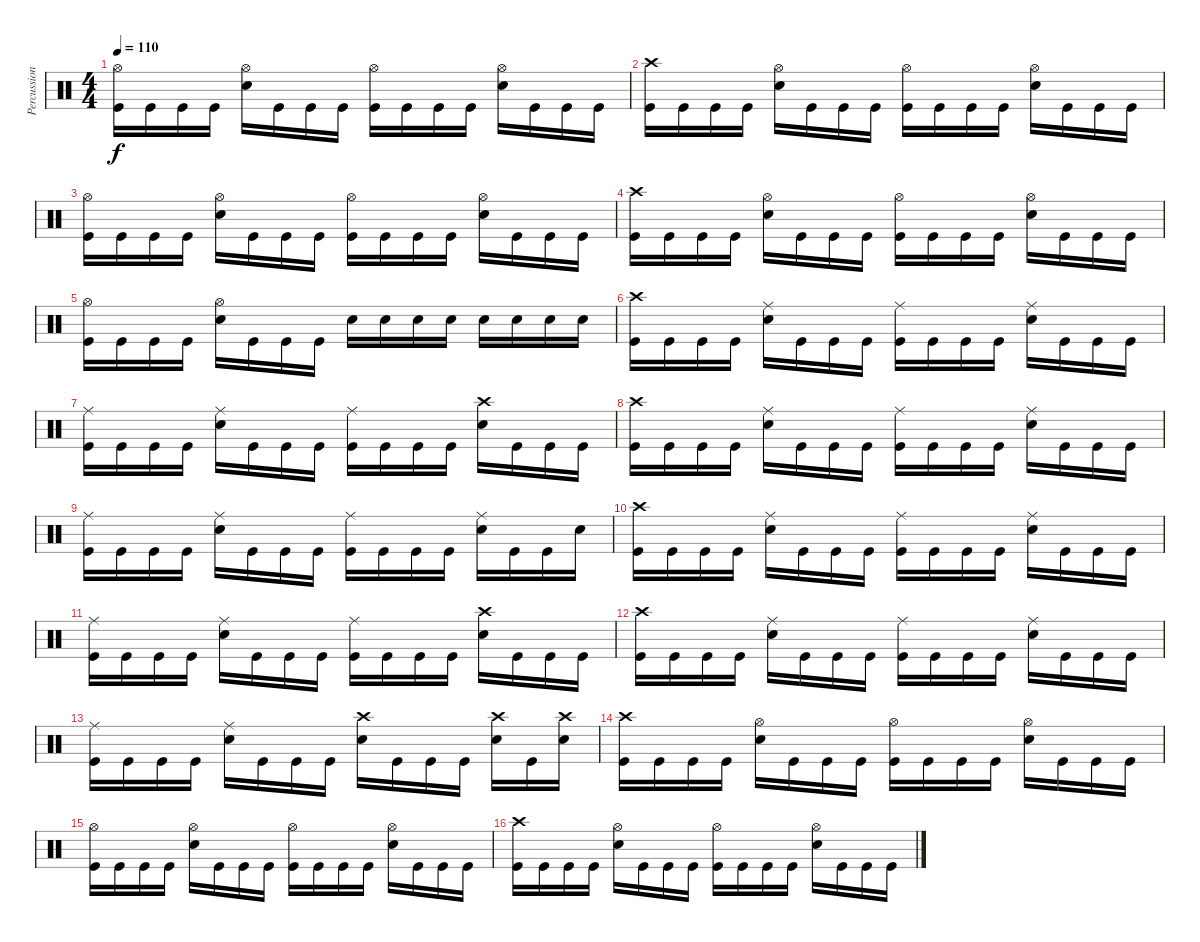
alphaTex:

\track ("Percussion" "Percussion") {instrument percussion}
\staff {score}
\articulation defaults
\ts (4 4)
\tempo 110
\clef neutral
\ks c
("Kick (hit)" "Hi-Hat (open)").16{dy f} "Kick (hit)".16 "Kick (hit)".16 "Kick (hit)".16 ("Electric Snare (hit)" "Hi-Hat (open)").16 "Kick (hit)".16 "Kick (hit)".16 "Kick (hit)".16 ("Kick (hit)" "Hi-Hat (open)").16 "Kick (hit)".16 "Kick (hit)".16 "Kick (hit)".16 ("Electric Snare (hit)" "Hi-Hat (open)").16 "Kick (hit)".16 "Kick (hit)".16 "Kick (hit)".16 |
("Kick (hit)" "Crash high (hit)").16 "Kick (hit)".16 "Kick (hit)".16 "Kick (hit)".16 ("Electric Snare (hit)" "Hi-Hat (open)").16 "Kick (hit)".16 "Kick (hit)".16 "Kick (hit)".16 ("Kick (hit)" "Hi-Hat (open)").16 "Kick (hit)".16 "Kick (hit)".16 "Kick (hit)".16 ("Electric Snare (hit)" "Hi-Hat (open)").16 "Kick (hit)".16 "Kick (hit)".16 "Kick (hit)".16 |
("Kick (hit)" "Hi-Hat (open)").16 "Kick (hit)".16 "Kick (hit)".16 "Kick (hit)".16 ("Electric Snare (hit)" "Hi-Hat (open)").16 "Kick (hit)".16 "Kick (hit)".16 "Kick (hit)".16 ("Kick (hit)" "Hi-Hat (open)").16 "Kick (hit)".16 "Kick (hit)".16 "Kick (hit)".16 ("Electric Snare (hit)" "Hi-Hat (open)").16 "Kick (hit)".16 "Kick (hit)".16 "Kick (hit)".16 |
("Kick (hit)" "Crash high (hit)").16 "Kick (hit)".16 "Kick (hit)".16 "Kick (hit)".16 ("Electric Snare (hit)" "Hi-Hat (open)").16 "Kick (hit)".16 "Kick (hit)".16 "Kick (hit)".16 ("Kick (hit)" "Hi-Hat (open)").16 "Kick (hit)".16 "Kick (hit)".16 "Kick (hit)".16 ("Electric Snare (hit)" "Hi-Hat (open)").16 "Kick (hit)".16 "Kick (hit)".16 "Kick (hit)".16 |
("Kick (hit)" "Hi-Hat (open)").16 "Kick (hit)".16 "Kick (hit)".16 "Kick (hit)".16 ("Electric Snare (hit)" "Hi-Hat (open)").16 "Kick (hit)".16 "Kick (hit)".16 "Kick (hit)".16 "Electric Snare (hit)".16 "Electric Snare (hit)".16 "Electric Snare (hit)".16 "Electric Snare (hit)".16 "Electric Snare (hit)".16 "Electric Snare (hit)".16 "Electric Snare (hit)".16 "Electric Snare (hit)".16 |
("Kick (hit)" "Crash high (hit)").16 "Kick (hit)".16 "Kick (hit)".16 "Kick (hit)".16 ("Electric Snare (hit)" "Ride (middle)").16 "Kick (hit)".16 "Kick (hit)".16 "Kick (hit)".16 ("Kick (hit)" "Ride (middle)").16 "Kick (hit)".16 "Kick (hit)".16 "Kick (hit)".16 ("Electric Snare (hit)" "Ride (middle)").16 "Kick (hit)".16 "Kick (hit)".16 "Kick (hit)".16 |
("Kick (hit)" "Ride (middle)").16 "Kick (hit)".16 "Kick (hit)".16 "Kick (hit)".16 ("Electric Snare (hit)" "Ride (middle)").16 "Kick (hit)".16 "Kick (hit)".16 "Kick (hit)".16 ("Kick (hit)" "Ride (middle)").16 "Kick (hit)".16 "Kick (hit)".16 "Kick (hit)".16 ("Electric Snare (hit)" "Crash high (hit)").16 "Kick (hit)".16 "Kick (hit)".16 "Kick (hit)".16 |
("Kick (hit)" "Crash high (hit)").16 "Kick (hit)".16 "Kick (hit)".16 "Kick (hit)".16 ("Electric Snare (hit)" "Ride (middle)").16 "Kick (hit)".16 "Kick (hit)".16 "Kick (hit)".16 ("Kick (hit)" "Ride (middle)").16 "Kick (hit)".16 "Kick (hit)".16 "Kick (hit)".16 ("Electric Snare (hit)" "Ride (middle)").16 "Kick (hit)".16 "Kick (hit)".16 "Kick (hit)".16 |
("Kick (hit)" "Ride (middle)").16 "Kick (hit)".16 "Kick (hit)".16 "Kick (hit)".16 ("Electric Snare (hit)" "Ride (middle)").16 "Kick (hit)".16 "Kick (hit)".16 "Kick (hit)".16 ("Kick (hit)" "Ride (middle)").16 "Kick (hit)".16 "Kick (hit)".16 "Kick (hit)".16 ("Electric Snare (hit)" "Ride (middle)").16 "Kick (hit)".16 "Kick (hit)".16 "Electric Snare (hit)".16 |
("Kick (hit)" "Crash high (hit)").16 "Kick (hit)".16 "Kick (hit)".16 "Kick (hit)".16 ("Electric Snare (hit)" "Ride (middle)").16 "Kick (hit)".16 "Kick (hit)".16 "Kick (hit)".16 ("Kick (hit)" "Ride (middle)").16 "Kick (hit)".16 "Kick (hit)".16 "Kick (hit)".16 ("Electric Snare (hit)" "Ride (middle)").16 "Kick (hit)".16 "Kick (hit)".16 "Kick (hit)".16 |
("Kick (hit)" "Ride (middle)").16 "Kick (hit)".16 "Kick (hit)".16 "Kick (hit)".16 ("Electric Snare (hit)" "Ride (middle)").16 "Kick (hit)".16 "Kick (hit)".16 "Kick (hit)".16 ("Kick (hit)" "Ride (middle)").16 "Kick (hit)".16 "Kick (hit)".16 "Kick (hit)".16 ("Electric Snare (hit)" "Crash high (hit)").16 "Kick (hit)".16 "Kick (hit)".16 "Kick (hit)".16 |
("Kick (hit)" "Crash high (hit)").16 "Kick (hit)".16 "Kick (hit)".16 "Kick (hit)".16 ("Electric Snare (hit)" "Ride (middle)").16 "Kick (hit)".16 "Kick (hit)".16 "Kick (hit)".16 ("Kick (hit)" "Ride (middle)").16 "Kick (hit)".16 "Kick (hit)".16 "Kick (hit)".16 ("Electric Snare (hit)" "Ride (middle)").16 "Kick (hit)".16 "Kick (hit)".16 "Kick (hit)".16 |
("Kick (hit)" "Ride (middle)").16 "Kick (hit)".16 "Kick (hit)".16 "Kick (hit)".16 ("Electric Snare (hit)" "Ride (middle)").16 "Kick (hit)".16 "Kick (hit)".16 "Kick (hit)".16 ("Electric Snare (hit)" "Crash high (hit)").16 "Kick (hit)".16 "Kick (hit)".16 "Kick (hit)".16 ("Electric Snare (hit)" "Crash high (hit)").16 "Kick (hit)".16 ("Electric Snare (hit)" "Crash high (hit)").16 |
("Kick (hit)" "Crash high (hit)").16 "Kick (hit)".16 "Kick (hit)".16 "Kick (hit)".16 ("Electric Snare (hit)" "Hi-Hat (open)").16 "Kick (hit)".16 "Kick (hit)".16 "Kick (hit)".16 ("Kick (hit)" "Hi-Hat (open)").16 "Kick (hit)".16 "Kick (hit)".16 "Kick (hit)".16 ("Electric Snare (hit)" "Hi-Hat (open)").16 "Kick (hit)".16 "Kick (hit)".16 "Kick (hit)".16 |
("Kick (hit)" "Hi-Hat (open)").16 "Kick (hit)".16 "Kick (hit)".16 "Kick (hit)".16 ("Electric Snare (hit)" "Hi-Hat (open)").16 "Kick (hit)".16 "Kick (hit)".16 "Kick (hit)".16 ("Kick (hit)" "Hi-Hat (open)").16 "Kick (hit)".16 "Kick (hit)".16 "Kick (hit)".16 ("Electric Snare (hit)" "Hi-Hat (open)").16 "Kick (hit)".16 "Kick (hit)".16 "Kick (hit)".16 |
("Kick (hit)" "Crash high (hit)").16 "Kick (hit)".16 "Kick (hit)".16 "Kick (hit)".16 ("Electric Snare (hit)" "Hi-Hat (open)").16 "Kick (hit)".16 "Kick (hit)".16 "Kick (hit)".16 ("Kick (hit)" "Hi-Hat (open)").16 "Kick (hit)".16 "Kick (hit)".16 "Kick (hit)".16 ("Electric Snare (hit)" "Hi-Hat (open)").16 "Kick (hit)".16 "Kick (hit)".16 "Kick (hit)".16
